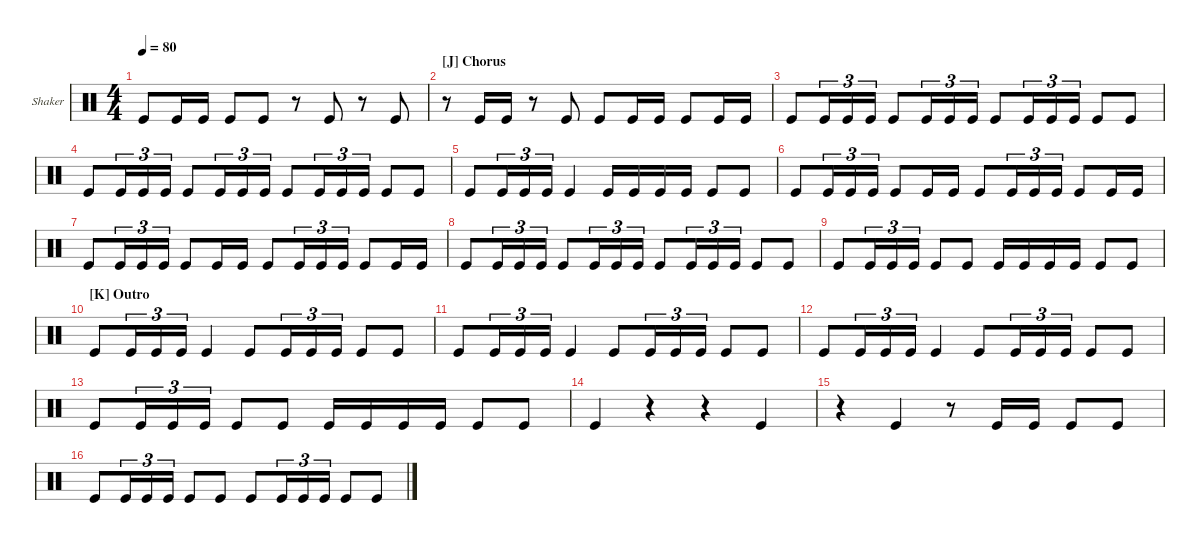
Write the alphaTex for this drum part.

\defaultSystemsLayout 4
\hideDynamics
\bracketExtendMode groupsimilarinstruments
\firstSystemTrackNameOrientation horizontal
\otherSystemsTrackNameOrientation horizontal
\track ("Shaker" "Shaker") {multiBarRest instrument percussion}
\staff {score}
\articulation defaults
\ts (4 4)
\tempo 80
\clef neutral
\ks c "Kick (hit)".8{dy p} "Kick (hit)".16 "Kick (hit)".16 "Kick (hit)".8 "Kick (hit)".8
r.8 "Kick (hit)".8 r.8 "Kick (hit)".8 |
\section ("J" "Chorus")
r.8 "Kick (hit)".16 "Kick (hit)".16 r.8 "Kick (hit)".8 "Kick (hit)".8 "Kick (hit)".16 "Kick (hit)".16 "Kick (hit)".8 "Kick (hit)".16 "Kick (hit)".16 |
"Kick (hit)".8{beam merge} "Kick (hit)".16{tu (3 2)} "Kick (hit)".16{tu (3 2)} "Kick (hit)".16{tu (3 2)} "Kick (hit)".8{beam merge} "Kick (hit)".16{tu (3 2)} "Kick (hit)".16{tu (3 2)} "Kick (hit)".16{tu (3 2)} "Kick (hit)".8{beam merge} "Kick (hit)".16{tu (3 2)} "Kick (hit)".16{tu (3 2)} "Kick (hit)".16{tu (3 2)} "Kick (hit)".8 "Kick (hit)".8 |
"Kick (hit)".8{beam merge} "Kick (hit)".16{tu (3 2)} "Kick (hit)".16{tu (3 2)} "Kick (hit)".16{tu (3 2)} "Kick (hit)".8{beam merge} "Kick (hit)".16{tu (3 2)} "Kick (hit)".16{tu (3 2)} "Kick (hit)".16{tu (3 2)} "Kick (hit)".8{beam merge} "Kick (hit)".16{tu (3 2)} "Kick (hit)".16{tu (3 2)} "Kick (hit)".16{tu (3 2)} "Kick (hit)".8 "Kick (hit)".8 |
"Kick (hit)".8{beam merge} "Kick (hit)".16{tu (3 2)} "Kick (hit)".16{tu (3 2)} "Kick (hit)".16{tu (3 2)} "Kick (hit)".4 "Kick (hit)".16 "Kick (hit)".16 "Kick (hit)".16 "Kick (hit)".16 "Kick (hit)".8 "Kick (hit)".8 |
"Kick (hit)".8{beam merge} "Kick (hit)".16{tu (3 2)} "Kick (hit)".16{tu (3 2)} "Kick (hit)".16{tu (3 2)} "Kick (hit)".8 "Kick (hit)".16 "Kick (hit)".16 "Kick (hit)".8{beam merge} "Kick (hit)".16{tu (3 2)} "Kick (hit)".16{tu (3 2)} "Kick (hit)".16{tu (3 2)} "Kick (hit)".8 "Kick (hit)".16 "Kick (hit)".16 |
"Kick (hit)".8{beam merge} "Kick (hit)".16{tu (3 2)} "Kick (hit)".16{tu (3 2)} "Kick (hit)".16{tu (3 2)} "Kick (hit)".8 "Kick (hit)".16 "Kick (hit)".16 "Kick (hit)".8{beam merge} "Kick (hit)".16{tu (3 2)} "Kick (hit)".16{tu (3 2)} "Kick (hit)".16{tu (3 2)} "Kick (hit)".8 "Kick (hit)".16 "Kick (hit)".16 |
"Kick (hit)".8{beam merge} "Kick (hit)".16{tu (3 2)} "Kick (hit)".16{tu (3 2)} "Kick (hit)".16{tu (3 2)} "Kick (hit)".8{beam merge} "Kick (hit)".16{tu (3 2)} "Kick (hit)".16{tu (3 2)} "Kick (hit)".16{tu (3 2)} "Kick (hit)".8{beam merge} "Kick (hit)".16{tu (3 2)} "Kick (hit)".16{tu (3 2)} "Kick (hit)".16{tu (3 2)} "Kick (hit)".8 "Kick (hit)".8 |
"Kick (hit)".8{beam merge} "Kick (hit)".16{tu (3 2)} "Kick (hit)".16{tu (3 2)} "Kick (hit)".16{tu (3 2)} "Kick (hit)".8 "Kick (hit)".8 "Kick (hit)".16 "Kick (hit)".16 "Kick (hit)".16 "Kick (hit)".16 "Kick (hit)".8 "Kick (hit)".8 |
\section ("K" "Outro")
"Kick (hit)".8{beam merge} "Kick (hit)".16{tu (3 2) beam merge} "Kick (hit)".16{tu (3 2)} "Kick (hit)".16{tu (3 2)} "Kick (hit)".4 "Kick (hit)".8{beam merge} "Kick (hit)".16{tu (3 2)} "Kick (hit)".16{tu (3 2)} "Kick (hit)".16{tu (3 2)} "Kick (hit)".8 "Kick (hit)".8 |
"Kick (hit)".8{beam merge} "Kick (hit)".16{tu (3 2) beam merge} "Kick (hit)".16{tu (3 2)} "Kick (hit)".16{tu (3 2)} "Kick (hit)".4 "Kick (hit)".8{beam merge} "Kick (hit)".16{tu (3 2)} "Kick (hit)".16{tu (3 2)} "Kick (hit)".16{tu (3 2)} "Kick (hit)".8 "Kick (hit)".8 |
"Kick (hit)".8{beam merge} "Kick (hit)".16{tu (3 2)} "Kick (hit)".16{tu (3 2)} "Kick (hit)".16{tu (3 2)} "Kick (hit)".4 "Kick (hit)".8{beam merge} "Kick (hit)".16{tu (3 2)} "Kick (hit)".16{tu (3 2)} "Kick (hit)".16{tu (3 2)} "Kick (hit)".8 "Kick (hit)".8 |
"Kick (hit)".8{beam merge} "Kick (hit)".16{tu (3 2)} "Kick (hit)".16{tu (3 2)} "Kick (hit)".16{tu (3 2)} "Kick (hit)".8 "Kick (hit)".8 "Kick (hit)".16 "Kick (hit)".16 "Kick (hit)".16 "Kick (hit)".16 "Kick (hit)".8 "Kick (hit)".8 |
"Kick (hit)".4 r.4 r.4 "Kick (hit)".4 |
r.4 "Kick (hit)".4 r.8 "Kick (hit)".16 "Kick (hit)".16 "Kick (hit)".8 "Kick (hit)".8 |
"Kick (hit)".8{beam merge} "Kick (hit)".16{tu (3 2)} "Kick (hit)".16{tu (3 2)} "Kick (hit)".16{tu (3 2)} "Kick (hit)".8 "Kick (hit)".8 "Kick (hit)".8{beam merge} "Kick (hit)".16{tu (3 2)} "Kick (hit)".16{tu (3 2)} "Kick (hit)".16{tu (3 2)} "Kick (hit)".8 "Kick (hit)".8
